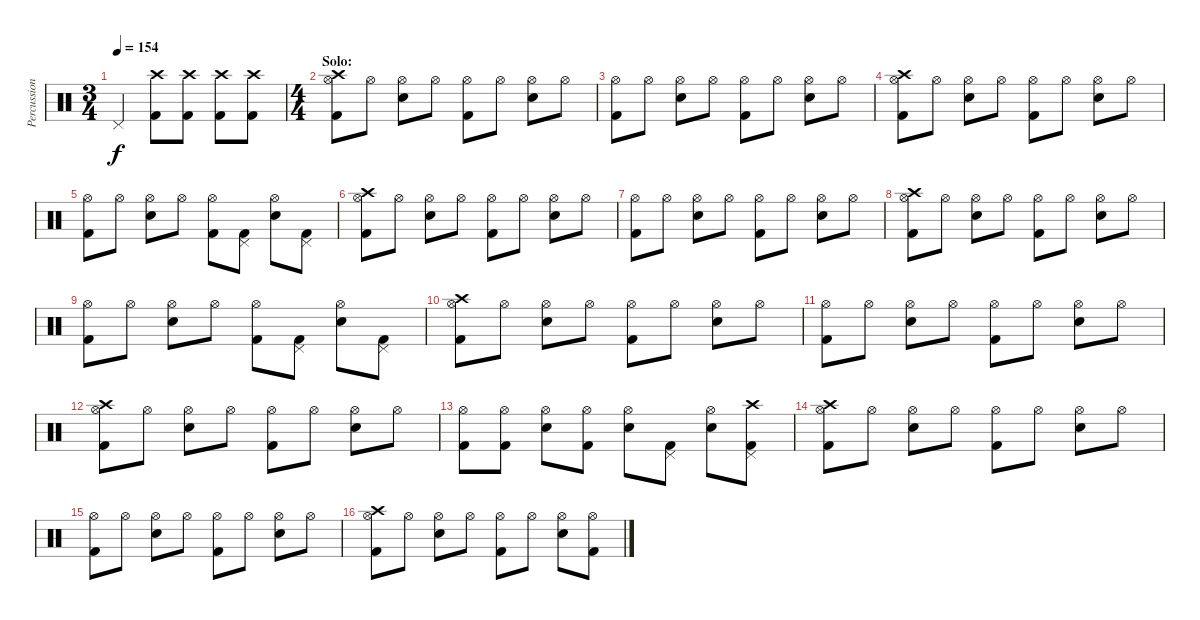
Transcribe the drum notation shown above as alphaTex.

\track ("Percussion" "Percussion") {instrument percussion}
\staff {score}
\articulation defaults
\ts (3 4)
\tempo 154
\clef neutral
\ks c "Pedal Hi-Hat (hit)".4{dy f}
("Crash high (hit)" "Kick (hit) 2").8 ("Crash high (hit)" "Kick (hit) 2").8 ("Crash high (hit)" "Kick (hit) 2").8 ("Crash high (hit)" "Kick (hit) 2").8 |
\ts (4 4)
\section ("" "Solo:")
("Hi-Hat (open)" "Crash high (hit)" "Kick (hit) 2").8 "Hi-Hat (open)".8 ("Hi-Hat (open)" "Snare (hit) 2").8 "Hi-Hat (open)".8 ("Hi-Hat (open)" "Kick (hit) 2").8 "Hi-Hat (open)".8 ("Hi-Hat (open)" "Snare (hit) 2").8 "Hi-Hat (open)".8 |
("Hi-Hat (open)" "Kick (hit) 2").8 "Hi-Hat (open)".8 ("Hi-Hat (open)" "Snare (hit) 2").8 "Hi-Hat (open)".8 ("Hi-Hat (open)" "Kick (hit) 2").8 "Hi-Hat (open)".8 ("Hi-Hat (open)" "Snare (hit) 2").8 "Hi-Hat (open)".8 |
("Hi-Hat (open)" "Crash high (hit)" "Kick (hit) 2").8 "Hi-Hat (open)".8 ("Hi-Hat (open)" "Snare (hit) 2").8 "Hi-Hat (open)".8 ("Hi-Hat (open)" "Kick (hit) 2").8 "Hi-Hat (open)".8 ("Hi-Hat (open)" "Snare (hit) 2").8 "Hi-Hat (open)".8 |
("Hi-Hat (open)" "Kick (hit) 2").8 "Hi-Hat (open)".8 ("Hi-Hat (open)" "Snare (hit) 2").8 "Hi-Hat (open)".8 ("Hi-Hat (open)" "Kick (hit) 2").8 ("Pedal Hi-Hat (hit)" "Kick (hit) 2").8 ("Hi-Hat (open)" "Snare (hit) 2").8 ("Pedal Hi-Hat (hit)" "Kick (hit) 2").8 |
("Hi-Hat (open)" "Crash high (hit)" "Kick (hit) 2").8 "Hi-Hat (open)".8 ("Hi-Hat (open)" "Snare (hit) 2").8 "Hi-Hat (open)".8 ("Hi-Hat (open)" "Kick (hit) 2").8 "Hi-Hat (open)".8 ("Hi-Hat (open)" "Snare (hit) 2").8 "Hi-Hat (open)".8 |
("Hi-Hat (open)" "Kick (hit) 2").8 "Hi-Hat (open)".8 ("Hi-Hat (open)" "Snare (hit) 2").8 "Hi-Hat (open)".8 ("Hi-Hat (open)" "Kick (hit) 2").8 "Hi-Hat (open)".8 ("Hi-Hat (open)" "Snare (hit) 2").8 "Hi-Hat (open)".8 |
("Hi-Hat (open)" "Crash high (hit)" "Kick (hit) 2").8 "Hi-Hat (open)".8 ("Hi-Hat (open)" "Snare (hit) 2").8 "Hi-Hat (open)".8 ("Hi-Hat (open)" "Kick (hit) 2").8 "Hi-Hat (open)".8 ("Hi-Hat (open)" "Snare (hit) 2").8 "Hi-Hat (open)".8 |
("Hi-Hat (open)" "Kick (hit) 2").8 "Hi-Hat (open)".8 ("Hi-Hat (open)" "Snare (hit) 2").8 "Hi-Hat (open)".8 ("Hi-Hat (open)" "Kick (hit) 2").8 ("Pedal Hi-Hat (hit)" "Kick (hit) 2").8 ("Hi-Hat (open)" "Snare (hit) 2").8 ("Pedal Hi-Hat (hit)" "Kick (hit) 2").8 |
("Hi-Hat (open)" "Crash high (hit)" "Kick (hit) 2").8 "Hi-Hat (open)".8 ("Hi-Hat (open)" "Snare (hit) 2").8 "Hi-Hat (open)".8 ("Hi-Hat (open)" "Kick (hit) 2").8 "Hi-Hat (open)".8 ("Hi-Hat (open)" "Snare (hit) 2").8 "Hi-Hat (open)".8 |
("Hi-Hat (open)" "Kick (hit) 2").8 "Hi-Hat (open)".8 ("Hi-Hat (open)" "Snare (hit) 2").8 "Hi-Hat (open)".8 ("Hi-Hat (open)" "Kick (hit) 2").8 "Hi-Hat (open)".8 ("Hi-Hat (open)" "Snare (hit) 2").8 "Hi-Hat (open)".8 |
("Hi-Hat (open)" "Crash high (hit)" "Kick (hit) 2").8 "Hi-Hat (open)".8 ("Hi-Hat (open)" "Snare (hit) 2").8 "Hi-Hat (open)".8 ("Hi-Hat (open)" "Kick (hit) 2").8 "Hi-Hat (open)".8 ("Hi-Hat (open)" "Snare (hit) 2").8 "Hi-Hat (open)".8 |
("Hi-Hat (open)" "Kick (hit) 2").8 ("Hi-Hat (open)" "Kick (hit) 2").8 ("Hi-Hat (open)" "Snare (hit) 2").8 ("Hi-Hat (open)" "Kick (hit) 2").8 ("Hi-Hat (open)" "Snare (hit) 2").8 ("Pedal Hi-Hat (hit)" "Kick (hit) 2").8 ("Hi-Hat (open)" "Snare (hit) 2").8 ("Pedal Hi-Hat (hit)" "Crash high (hit)" "Kick (hit) 2").8 |
("Hi-Hat (open)" "Crash high (hit)" "Kick (hit) 2").8 "Hi-Hat (open)".8 ("Hi-Hat (open)" "Snare (hit) 2").8 "Hi-Hat (open)".8 ("Hi-Hat (open)" "Kick (hit) 2").8 "Hi-Hat (open)".8 ("Hi-Hat (open)" "Snare (hit) 2").8 "Hi-Hat (open)".8 |
("Hi-Hat (open)" "Kick (hit) 2").8 "Hi-Hat (open)".8 ("Hi-Hat (open)" "Snare (hit) 2").8 "Hi-Hat (open)".8 ("Hi-Hat (open)" "Kick (hit) 2").8 "Hi-Hat (open)".8 ("Hi-Hat (open)" "Snare (hit) 2").8 "Hi-Hat (open)".8 |
("Hi-Hat (open)" "Crash high (hit)" "Kick (hit) 2").8 "Hi-Hat (open)".8 ("Hi-Hat (open)" "Snare (hit) 2").8 "Hi-Hat (open)".8 ("Hi-Hat (open)" "Kick (hit) 2").8 "Hi-Hat (open)".8 ("Hi-Hat (open)" "Snare (hit) 2").8 ("Hi-Hat (open)" "Kick (hit) 2").8
